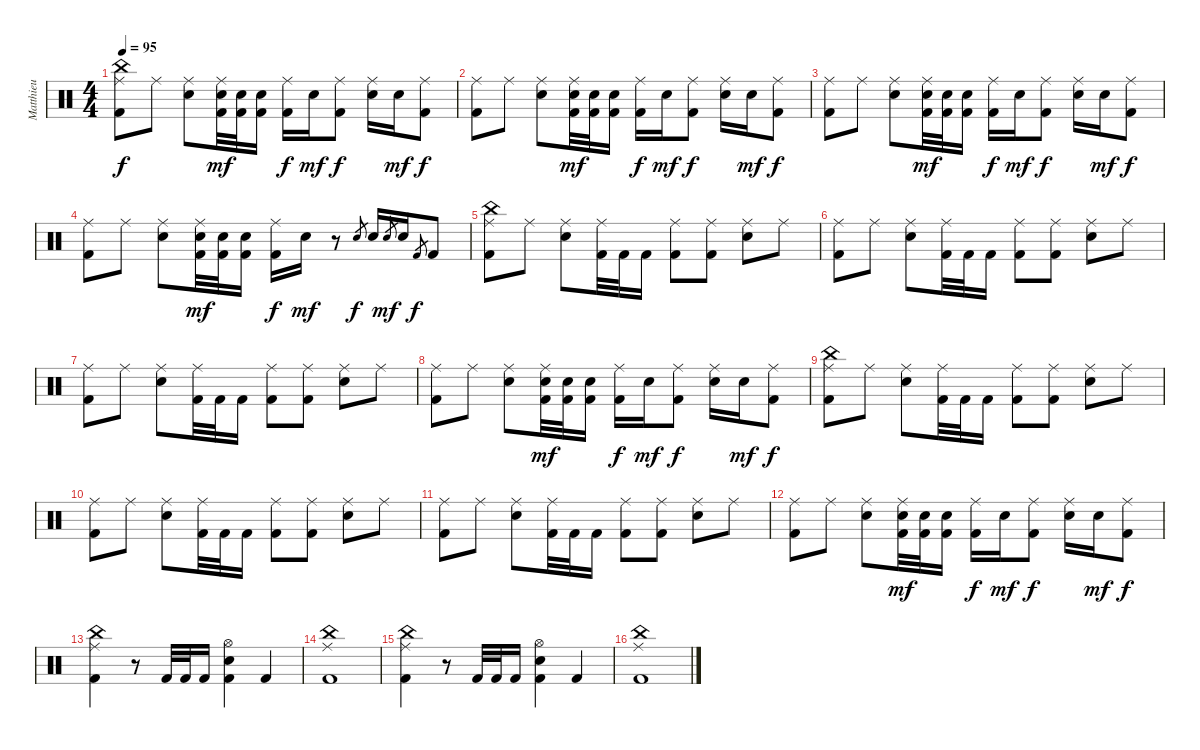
\track ("Matthieu" "Matthieu") {instrument percussion}
\staff {score}
\articulation defaults
\ts (4 4)
\tempo 95
\clef neutral
\ks c
("China (hit)" "Ride (middle)" "Kick (hit) 2").8{dy f} "Ride (middle)".8 ("Ride (middle)" "Snare (hit) 2").8 ("Ride (middle)" "Electric Snare (hit)" "Kick (hit) 2").32{dy mf} ("Electric Snare (hit)" "Kick (hit) 2").32 ("Electric Snare (hit)" "Kick (hit) 2").16 ("Ride (middle)" "Kick (hit) 2").16{dy f} "Electric Snare (hit)".16{dy mf} ("Ride (middle)" "Kick (hit) 2").8{dy f} ("Ride (middle)" "Snare (hit) 2").16 "Electric Snare (hit)".16{dy mf} ("Ride (middle)" "Kick (hit) 2").8{dy f} |
("Ride (middle)" "Kick (hit) 2").8 "Ride (middle)".8 ("Ride (middle)" "Snare (hit) 2").8 ("Ride (middle)" "Electric Snare (hit)" "Kick (hit) 2").32{dy mf} ("Electric Snare (hit)" "Kick (hit) 2").32 ("Electric Snare (hit)" "Kick (hit) 2").16 ("Ride (middle)" "Kick (hit) 2").16{dy f} "Electric Snare (hit)".16{dy mf} ("Ride (middle)" "Kick (hit) 2").8{dy f} ("Ride (middle)" "Snare (hit) 2").16 "Electric Snare (hit)".16{dy mf} ("Ride (middle)" "Kick (hit) 2").8{dy f} |
("Ride (middle)" "Kick (hit) 2").8 "Ride (middle)".8 ("Ride (middle)" "Snare (hit) 2").8 ("Ride (middle)" "Electric Snare (hit)" "Kick (hit) 2").32{dy mf} ("Electric Snare (hit)" "Kick (hit) 2").32 ("Electric Snare (hit)" "Kick (hit) 2").16 ("Ride (middle)" "Kick (hit) 2").16{dy f} "Electric Snare (hit)".16{dy mf} ("Ride (middle)" "Kick (hit) 2").8{dy f} ("Ride (middle)" "Snare (hit) 2").16 "Electric Snare (hit)".16{dy mf} ("Ride (middle)" "Kick (hit) 2").8{dy f} |
("Ride (middle)" "Kick (hit) 2").8 "Ride (middle)".8 ("Ride (middle)" "Snare (hit) 2").8 ("Ride (middle)" "Electric Snare (hit)" "Kick (hit) 2").32{dy mf} ("Electric Snare (hit)" "Kick (hit) 2").32 ("Electric Snare (hit)" "Kick (hit) 2").16 ("Ride (middle)" "Kick (hit) 2").16{dy f} "Electric Snare (hit)".16{dy mf} r.8 "Snare (hit) 2".8{gr dy f} "Snare (hit) 2".16 "Electric Snare (hit)".8{gr dy mf} "Electric Snare (hit)".16 "Kick (hit) 2".8{gr dy f} "Kick (hit) 2".8 |
("China (hit)" "Ride (middle)" "Kick (hit) 2").8 "Ride (middle)".8 ("Ride (middle)" "Snare (hit) 2").8 ("Ride (middle)" "Kick (hit) 2").32 "Kick (hit) 2".32 "Kick (hit) 2".16 ("Ride (middle)" "Kick (hit) 2").8 ("Ride (middle)" "Kick (hit) 2").8 ("Ride (middle)" "Snare (hit) 2").8 "Ride (middle)".8 |
("Ride (middle)" "Kick (hit) 2").8 "Ride (middle)".8 ("Ride (middle)" "Snare (hit) 2").8 ("Ride (middle)" "Kick (hit) 2").32 "Kick (hit) 2".32 "Kick (hit) 2".16 ("Ride (middle)" "Kick (hit) 2").8 ("Ride (middle)" "Kick (hit) 2").8 ("Ride (middle)" "Snare (hit) 2").8 "Ride (middle)".8 |
("Ride (middle)" "Kick (hit) 2").8 "Ride (middle)".8 ("Ride (middle)" "Snare (hit) 2").8 ("Ride (middle)" "Kick (hit) 2").32 "Kick (hit) 2".32 "Kick (hit) 2".16 ("Ride (middle)" "Kick (hit) 2").8 ("Ride (middle)" "Kick (hit) 2").8 ("Ride (middle)" "Snare (hit) 2").8 "Ride (middle)".8 |
("Ride (middle)" "Kick (hit) 2").8 "Ride (middle)".8 ("Ride (middle)" "Snare (hit) 2").8 ("Ride (middle)" "Electric Snare (hit)" "Kick (hit) 2").32{dy mf} ("Electric Snare (hit)" "Kick (hit) 2").32 ("Electric Snare (hit)" "Kick (hit) 2").16 ("Ride (middle)" "Kick (hit) 2").16{dy f} "Electric Snare (hit)".16{dy mf} ("Ride (middle)" "Kick (hit) 2").8{dy f} ("Ride (middle)" "Snare (hit) 2").16 "Electric Snare (hit)".16{dy mf} ("Ride (middle)" "Kick (hit) 2").8{dy f} |
("China (hit)" "Ride (middle)" "Kick (hit) 2").8 "Ride (middle)".8 ("Ride (middle)" "Snare (hit) 2").8 ("Ride (middle)" "Kick (hit) 2").32 "Kick (hit) 2".32 "Kick (hit) 2".16 ("Ride (middle)" "Kick (hit) 2").8 ("Ride (middle)" "Kick (hit) 2").8 ("Ride (middle)" "Snare (hit) 2").8 "Ride (middle)".8 |
("Ride (middle)" "Kick (hit) 2").8 "Ride (middle)".8 ("Ride (middle)" "Snare (hit) 2").8 ("Ride (middle)" "Kick (hit) 2").32 "Kick (hit) 2".32 "Kick (hit) 2".16 ("Ride (middle)" "Kick (hit) 2").8 ("Ride (middle)" "Kick (hit) 2").8 ("Ride (middle)" "Snare (hit) 2").8 "Ride (middle)".8 |
("Ride (middle)" "Kick (hit) 2").8 "Ride (middle)".8 ("Ride (middle)" "Snare (hit) 2").8 ("Ride (middle)" "Kick (hit) 2").32 "Kick (hit) 2".32 "Kick (hit) 2".16 ("Ride (middle)" "Kick (hit) 2").8 ("Ride (middle)" "Kick (hit) 2").8 ("Ride (middle)" "Snare (hit) 2").8 "Ride (middle)".8 |
("Ride (middle)" "Kick (hit) 2").8 "Ride (middle)".8 ("Ride (middle)" "Snare (hit) 2").8 ("Ride (middle)" "Electric Snare (hit)" "Kick (hit) 2").32{dy mf} ("Electric Snare (hit)" "Kick (hit) 2").32 ("Electric Snare (hit)" "Kick (hit) 2").16 ("Ride (middle)" "Kick (hit) 2").16{dy f} "Electric Snare (hit)".16{dy mf} ("Ride (middle)" "Kick (hit) 2").8{dy f} ("Ride (middle)" "Snare (hit) 2").16 "Electric Snare (hit)".16{dy mf} ("Ride (middle)" "Kick (hit) 2").8{dy f} |
("China (hit)" "Ride (middle)" "Kick (hit) 2").4 r.8 "Kick (hit) 2".32 "Kick (hit) 2".32 "Kick (hit) 2".16 ("Hi-Hat (open)" "Snare (hit) 2" "Kick (hit) 2").4 "Kick (hit) 2".4 |
("China (hit)" "Ride (middle)" "Kick (hit) 2").1 |
("China (hit)" "Ride (middle)" "Kick (hit) 2").4 r.8 "Kick (hit) 2".32 "Kick (hit) 2".32 "Kick (hit) 2".16 ("Hi-Hat (open)" "Snare (hit) 2" "Kick (hit) 2").4 "Kick (hit) 2".4 |
("China (hit)" "Ride (middle)" "Kick (hit) 2").1
